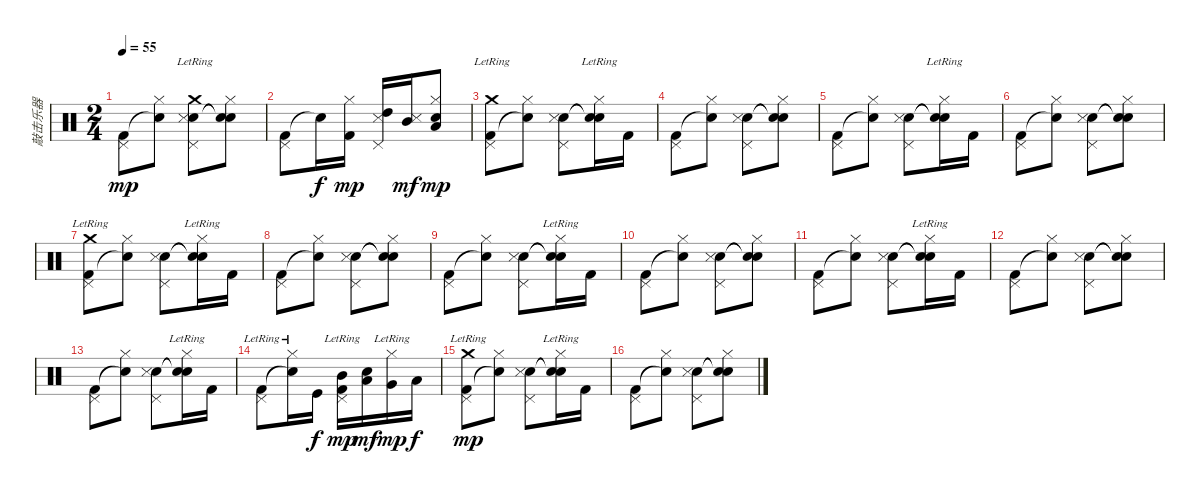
\track ("敲击乐器" "敲击乐器") {instrument percussion}
\staff {score}
\articulation defaults
\ts (2 4)
\tempo 55
\clef neutral
\ks c
("Kick (hit) 2" "Pedal Hi-Hat (hit)").8{dy mp} ("Snare (hit)"{t} "Hi-Hat (closed)").8 ("Snare (hit) 2" "Snare (side stick) 3" "Crash medium (hit)"{lr} "Pedal Hi-Hat (hit)").8 ("Snare (hit)"{t} "Snare (hit)"{t} "Hi-Hat (closed)").8 |
("Kick (hit) 2" "Pedal Hi-Hat (hit)").8 "Snare (hit)"{t}.16{dy f} ("Kick (hit) 2" "Hi-Hat (closed)").16{dy mp} ("High Tom (hit)" "Metronome (hit)" "Pedal Hi-Hat (hit)").16 ("Mid Tom (hit)" "Metronome (hit)").16{dy mf} ("Low Tom (hit)" "Snare (hit) 2" "Hi-Hat (closed)").8{dy mp} |
("Kick (hit) 2" "Crash medium (hit)"{lr} "Pedal Hi-Hat (hit)").8 ("Snare (hit)"{t} "Hi-Hat (closed)").8 ("Snare (hit) 2" "Snare (side stick) 3" "Pedal Hi-Hat (hit)").8 ("Snare (hit)"{t} "Snare (hit)"{t} "Hi-Hat (closed)"{lr}).16 "Kick (hit) 2".16 |
("Kick (hit) 2" "Pedal Hi-Hat (hit)").8 ("Snare (hit)"{t} "Hi-Hat (closed)").8 ("Snare (hit) 2" "Snare (side stick) 3" "Pedal Hi-Hat (hit)").8 ("Snare (hit)"{t} "Snare (hit)"{t} "Hi-Hat (closed)").8 |
("Kick (hit) 2" "Pedal Hi-Hat (hit)").8 ("Snare (hit)"{t} "Hi-Hat (closed)").8 ("Snare (hit) 2" "Snare (side stick) 3" "Pedal Hi-Hat (hit)").8 ("Snare (hit)"{t} "Snare (hit)"{t} "Hi-Hat (closed)"{lr}).16 "Kick (hit) 2".16 |
("Kick (hit) 2" "Pedal Hi-Hat (hit)").8 ("Snare (hit)"{t} "Hi-Hat (closed)").8 ("Snare (hit) 2" "Snare (side stick) 3" "Pedal Hi-Hat (hit)").8 ("Snare (hit)"{t} "Snare (hit)"{t} "Hi-Hat (closed)").8 |
("Kick (hit) 2" "Crash medium (hit)"{lr} "Pedal Hi-Hat (hit)").8 ("Snare (hit)"{t} "Hi-Hat (closed)").8 ("Snare (hit) 2" "Snare (side stick) 3" "Pedal Hi-Hat (hit)").8 ("Snare (hit)"{t} "Snare (hit)"{t} "Hi-Hat (closed)"{lr}).16 "Kick (hit) 2".16 |
("Kick (hit) 2" "Pedal Hi-Hat (hit)").8 ("Snare (hit)"{t} "Hi-Hat (closed)").8 ("Snare (hit) 2" "Snare (side stick) 3" "Pedal Hi-Hat (hit)").8 ("Snare (hit)"{t} "Snare (hit)"{t} "Hi-Hat (closed)").8 |
("Kick (hit) 2" "Pedal Hi-Hat (hit)").8 ("Snare (hit)"{t} "Hi-Hat (closed)").8 ("Snare (hit) 2" "Snare (side stick) 3" "Pedal Hi-Hat (hit)").8 ("Snare (hit)"{t} "Snare (hit)"{t} "Hi-Hat (closed)"{lr}).16 "Kick (hit) 2".16 |
("Kick (hit) 2" "Pedal Hi-Hat (hit)").8 ("Snare (hit)"{t} "Hi-Hat (closed)").8 ("Snare (hit) 2" "Snare (side stick) 3" "Pedal Hi-Hat (hit)").8 ("Snare (hit)"{t} "Snare (hit)"{t} "Hi-Hat (closed)").8 |
("Kick (hit) 2" "Pedal Hi-Hat (hit)").8 ("Snare (hit)"{t} "Hi-Hat (closed)").8 ("Snare (hit) 2" "Snare (side stick) 3" "Pedal Hi-Hat (hit)").8 ("Snare (hit)"{t} "Snare (hit)"{t} "Hi-Hat (closed)"{lr}).16 "Kick (hit) 2".16 |
("Kick (hit) 2" "Pedal Hi-Hat (hit)").8 ("Snare (hit)"{t} "Hi-Hat (closed)").8 ("Snare (hit) 2" "Snare (side stick) 3" "Pedal Hi-Hat (hit)").8 ("Snare (hit)"{t} "Snare (hit)"{t} "Hi-Hat (closed)").8 |
("Kick (hit) 2" "Pedal Hi-Hat (hit)").8 ("Snare (hit)"{t} "Hi-Hat (closed)").8 ("Snare (hit) 2" "Snare (side stick) 3" "Pedal Hi-Hat (hit)").8 ("Snare (hit)"{t} "Snare (hit)"{t} "Hi-Hat (closed)"{lr}).16 "Kick (hit) 2".16 |
("Kick (hit) 2" "Pedal Hi-Hat (hit)"{lr}).8 ("Snare (hit)"{t} "Hi-Hat (closed)"{lr}).16 "Kick (hit)".16{dy f} ("Mid Tom (hit)" "Kick (hit) 2"{lr} "Pedal Hi-Hat (hit)"{lr}).16{dy mp} ("Low Tom (hit)" "Snare (hit) 2").16{dy mf} ("Very Low Tom (hit)" "Hi-Hat (closed)"{lr}).16{dy mp} "Low Floor Tom (hit)".16{dy f} |
("Kick (hit) 2" "Crash medium (hit)"{lr} "Pedal Hi-Hat (hit)").8{dy mp} ("Snare (hit)"{t} "Hi-Hat (closed)").8 ("Snare (hit) 2" "Snare (side stick) 3" "Pedal Hi-Hat (hit)").8 ("Snare (hit)"{t} "Snare (hit)"{t} "Hi-Hat (closed)"{lr}).16 "Kick (hit) 2".16 |
("Kick (hit) 2" "Pedal Hi-Hat (hit)").8 ("Snare (hit)"{t} "Hi-Hat (closed)").8 ("Snare (hit) 2" "Snare (side stick) 3" "Pedal Hi-Hat (hit)").8 ("Snare (hit)"{t} "Snare (hit)"{t} "Hi-Hat (closed)").8
